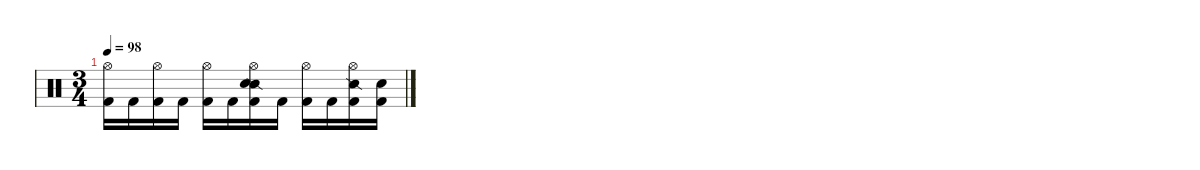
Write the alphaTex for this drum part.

\defaultSystemsLayout 4
\hideDynamics
\bracketExtendMode nobrackets
\singleTrackTrackNamePolicy hidden
\multiTrackTrackNamePolicy hidden
\firstSystemTrackNameMode fullname
\firstSystemTrackNameOrientation horizontal
\otherSystemsTrackNameOrientation horizontal
\track ("Drums" "drm.") {defaultSystemsLayout 4 instrument percussion}
\staff {score}
\articulation defaults
\ts (3 4)
\tempo 98
\clef neutral
\ks c
("Hi-Hat (open)" "Kick (hit) 2").16{dy ff beam Down} "Kick (hit) 2".16{dy f beam Down} ("Hi-Hat (open)" "Kick (hit) 2").16{dy ff beam Down} "Kick (hit) 2".16{dy f beam Down} ("Hi-Hat (open)" "Kick (hit) 2").16{dy ff beam Down} "Kick (hit) 2".16{dy f beam Down} ("Hi-Hat (open)" "Snare (side stick) 2" "Snare (hit) 2" "Kick (hit) 2").16{dy ff beam Down} "Kick (hit) 2".16{dy f beam Down} ("Hi-Hat (open)" "Kick (hit) 2").16{dy ff beam Down} "Kick (hit) 2".16{dy f beam Down} ("Hi-Hat (open)" "Snare (side stick) 2" "Kick (hit) 2").16{dy ff beam Down} ("Snare (hit) 2" "Kick (hit) 2").16{dy fff beam Down}
